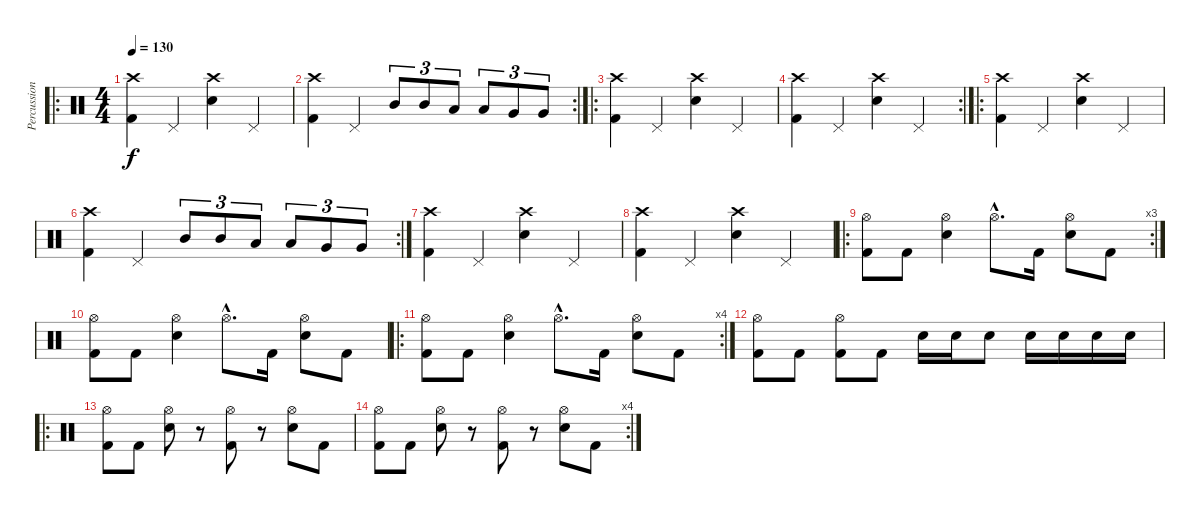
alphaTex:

\track ("Percussions" "Percussion") {instrument percussion}
\staff {score}
\articulation defaults
\ro
\ts (4 4)
\tempo 130
\clef neutral
\ks c
("Crash high (hit)" "Kick (hit) 2").4{dy f} "Pedal Hi-Hat (hit)".4 ("Crash high (hit)" "Snare (hit) 2").4 "Pedal Hi-Hat (hit)".4 |
\rc 2
("Crash high (hit)" "Kick (hit) 2").4 "Pedal Hi-Hat (hit)".4 "Mid Tom (hit)".8{tu (3 2)} "Mid Tom (hit)".8{tu (3 2)} "Low Tom (hit)".8{tu (3 2)} "Low Tom (hit)".8{tu (3 2)} "Very Low Tom (hit)".8{tu (3 2)} "Very Low Tom (hit)".8{tu (3 2)} |
\ro
("Crash high (hit)" "Kick (hit) 2").4 "Pedal Hi-Hat (hit)".4 ("Crash high (hit)" "Snare (hit) 2").4 "Pedal Hi-Hat (hit)".4 |
\rc 2
("Crash high (hit)" "Kick (hit) 2").4 "Pedal Hi-Hat (hit)".4 ("Crash high (hit)" "Snare (hit) 2").4 "Pedal Hi-Hat (hit)".4 |
\ro
("Crash high (hit)" "Kick (hit) 2").4 "Pedal Hi-Hat (hit)".4 ("Crash high (hit)" "Snare (hit) 2").4 "Pedal Hi-Hat (hit)".4 |
\rc 2
("Crash high (hit)" "Kick (hit) 2").4 "Pedal Hi-Hat (hit)".4 "Mid Tom (hit)".8{tu (3 2)} "Mid Tom (hit)".8{tu (3 2)} "Low Tom (hit)".8{tu (3 2)} "Low Tom (hit)".8{tu (3 2)} "Very Low Tom (hit)".8{tu (3 2)} "Very Low Tom (hit)".8{tu (3 2)} |
("Crash high (hit)" "Kick (hit) 2").4 "Pedal Hi-Hat (hit)".4 ("Crash high (hit)" "Snare (hit) 2").4 "Pedal Hi-Hat (hit)".4 |
("Crash high (hit)" "Kick (hit) 2").4 "Pedal Hi-Hat (hit)".4 ("Crash high (hit)" "Snare (hit) 2").4 "Pedal Hi-Hat (hit)".4 |
\ro
\rc 3
("Hi-Hat (open)" "Kick (hit) 2").8 "Kick (hit) 2".8 ("Snare (hit) 2" "Hi-Hat (open)").4 "Hi-Hat (open)"{hac}.8{d} "Kick (hit) 2".16 ("Hi-Hat (open)" "Snare (hit) 2").8 "Kick (hit) 2".8 |
("Hi-Hat (open)" "Kick (hit) 2").8 "Kick (hit) 2".8 ("Snare (hit) 2" "Hi-Hat (open)").4 "Hi-Hat (open)"{hac}.8{d} "Kick (hit) 2".16 ("Hi-Hat (open)" "Snare (hit) 2").8 "Kick (hit) 2".8 |
\ro
\rc 4
("Hi-Hat (open)" "Kick (hit) 2").8 "Kick (hit) 2".8 ("Snare (hit) 2" "Hi-Hat (open)").4 "Hi-Hat (open)"{hac}.8{d} "Kick (hit) 2".16 ("Hi-Hat (open)" "Snare (hit) 2").8 "Kick (hit) 2".8 |
("Hi-Hat (open)" "Kick (hit) 2").8 "Kick (hit) 2".8 ("Hi-Hat (open)" "Kick (hit) 2").8 "Kick (hit) 2".8 "Snare (hit) 2".16 "Snare (hit) 2".16 "Snare (hit) 2".8 "Snare (hit) 2".16 "Snare (hit) 2".16 "Snare (hit) 2".16 "Snare (hit) 2".16 |
\ro
("Hi-Hat (open)" "Kick (hit) 2").8 "Kick (hit) 2".8 ("Hi-Hat (open)" "Snare (hit) 2").8 r.8 ("Hi-Hat (open)" "Kick (hit) 2").8 r.8 ("Hi-Hat (open)" "Snare (hit) 2").8 "Kick (hit) 2".8 |
\rc 4
("Hi-Hat (open)" "Kick (hit) 2").8 "Kick (hit) 2".8 ("Hi-Hat (open)" "Snare (hit) 2").8 r.8 ("Hi-Hat (open)" "Kick (hit) 2").8 r.8 ("Hi-Hat (open)" "Snare (hit) 2").8 "Kick (hit) 2".8
